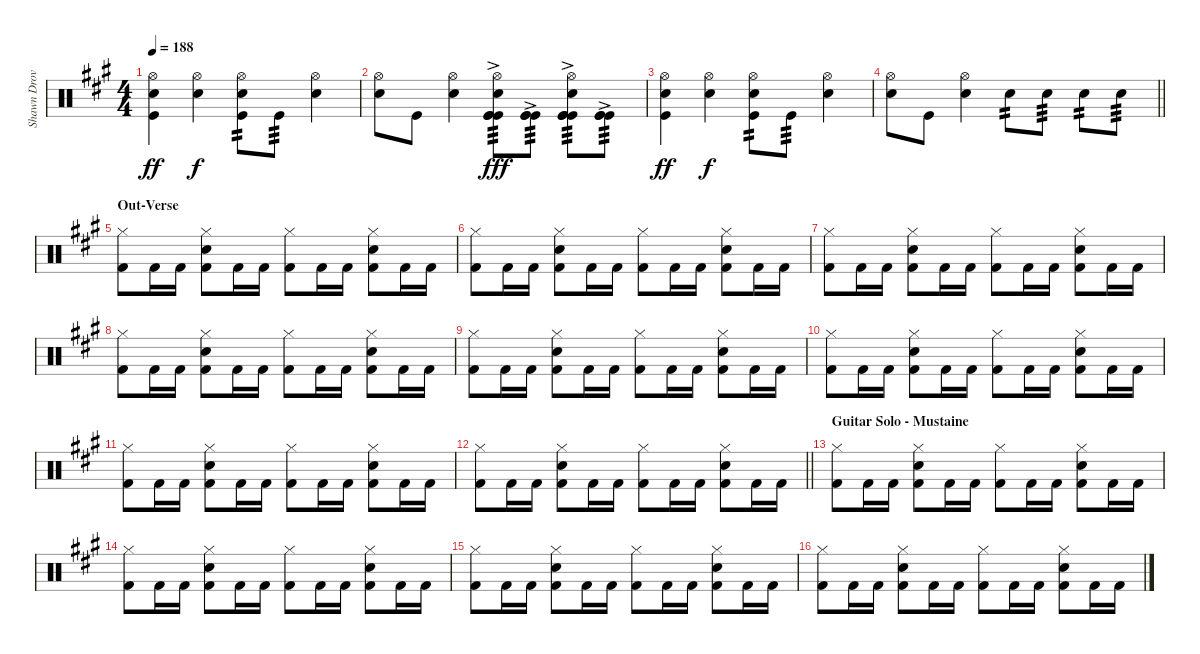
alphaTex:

\track ("Shawn Drover" "Shawn Drov") {instrument percussion}
\staff {score}
\articulation defaults
\ts (4 4)
\tempo 188
\clef neutral
\ks a
("Hi-Hat (open)" "Snare (hit) 2" "Kick (hit)").4{dy ff} ("Hi-Hat (open)" "Snare (hit) 2").4{dy f} ("Hi-Hat (open)" "Snare (hit) 2" "Kick (hit)").8{tp 2} "Kick (hit)".8{tp 3} ("Hi-Hat (open)" "Snare (hit) 2").4 |
("Hi-Hat (open)" "Snare (hit) 2").8 "Kick (hit)".8 ("Hi-Hat (open)" "Snare (hit) 2").4 ("Hi-Hat (open)" "Snare (hit) 2" "Kick (hit)"{ac} "Kick (hit)" "Kick (hit)").8{tp 3 dy fff} ("Kick (hit)"{ac} "Kick (hit)" "Kick (hit)").8{tp 3} ("Hi-Hat (open)" "Snare (hit) 2" "Kick (hit)"{ac} "Kick (hit)" "Kick (hit)").8{tp 3} ("Kick (hit)"{ac} "Kick (hit)" "Kick (hit)").8{tp 3} |
("Hi-Hat (open)" "Snare (hit) 2" "Kick (hit)").4{dy ff} ("Hi-Hat (open)" "Snare (hit) 2").4{dy f} ("Hi-Hat (open)" "Snare (hit) 2" "Kick (hit)").8{tp 2} "Kick (hit)".8{tp 3} ("Hi-Hat (open)" "Snare (hit) 2").4 |
\barLineRight lightlight
("Hi-Hat (open)" "Snare (hit) 2").8 "Kick (hit)".8 ("Hi-Hat (open)" "Snare (hit) 2").4 "Snare (hit) 2".8{tp 2} "Snare (hit) 2".8{tp 3} "Snare (hit) 2".8{tp 2} "Snare (hit) 2".8{tp 3} |
\section ("" "Out-Verse")
("Hi-Hat (closed)" "Kick (hit) 2").8 "Kick (hit) 2".16 "Kick (hit) 2".16 ("Hi-Hat (closed)" "Electric Snare (hit)" "Kick (hit) 2").8 "Kick (hit) 2".16 "Kick (hit) 2".16 ("Hi-Hat (closed)" "Kick (hit) 2").8 "Kick (hit) 2".16 "Kick (hit) 2".16 ("Hi-Hat (closed)" "Electric Snare (hit)" "Kick (hit) 2").8 "Kick (hit) 2".16 "Kick (hit) 2".16 |
("Hi-Hat (closed)" "Kick (hit) 2").8 "Kick (hit) 2".16 "Kick (hit) 2".16 ("Hi-Hat (closed)" "Electric Snare (hit)" "Kick (hit) 2").8 "Kick (hit) 2".16 "Kick (hit) 2".16 ("Hi-Hat (closed)" "Kick (hit) 2").8 "Kick (hit) 2".16 "Kick (hit) 2".16 ("Hi-Hat (closed)" "Electric Snare (hit)" "Kick (hit) 2").8 "Kick (hit) 2".16 "Kick (hit) 2".16 |
("Hi-Hat (closed)" "Kick (hit) 2").8 "Kick (hit) 2".16 "Kick (hit) 2".16 ("Hi-Hat (closed)" "Electric Snare (hit)" "Kick (hit) 2").8 "Kick (hit) 2".16 "Kick (hit) 2".16 ("Hi-Hat (closed)" "Kick (hit) 2").8 "Kick (hit) 2".16 "Kick (hit) 2".16 ("Hi-Hat (closed)" "Electric Snare (hit)" "Kick (hit) 2").8 "Kick (hit) 2".16 "Kick (hit) 2".16 |
("Hi-Hat (closed)" "Kick (hit) 2").8 "Kick (hit) 2".16 "Kick (hit) 2".16 ("Hi-Hat (closed)" "Electric Snare (hit)" "Kick (hit) 2").8 "Kick (hit) 2".16 "Kick (hit) 2".16 ("Hi-Hat (closed)" "Kick (hit) 2").8 "Kick (hit) 2".16 "Kick (hit) 2".16 ("Hi-Hat (closed)" "Electric Snare (hit)" "Kick (hit) 2").8 "Kick (hit) 2".16 "Kick (hit) 2".16 |
("Hi-Hat (closed)" "Kick (hit) 2").8 "Kick (hit) 2".16 "Kick (hit) 2".16 ("Hi-Hat (closed)" "Electric Snare (hit)" "Kick (hit) 2").8 "Kick (hit) 2".16 "Kick (hit) 2".16 ("Hi-Hat (closed)" "Kick (hit) 2").8 "Kick (hit) 2".16 "Kick (hit) 2".16 ("Hi-Hat (closed)" "Electric Snare (hit)" "Kick (hit) 2").8 "Kick (hit) 2".16 "Kick (hit) 2".16 |
("Hi-Hat (closed)" "Kick (hit) 2").8 "Kick (hit) 2".16 "Kick (hit) 2".16 ("Hi-Hat (closed)" "Electric Snare (hit)" "Kick (hit) 2").8 "Kick (hit) 2".16 "Kick (hit) 2".16 ("Hi-Hat (closed)" "Kick (hit) 2").8 "Kick (hit) 2".16 "Kick (hit) 2".16 ("Hi-Hat (closed)" "Electric Snare (hit)" "Kick (hit) 2").8 "Kick (hit) 2".16 "Kick (hit) 2".16 |
("Hi-Hat (closed)" "Kick (hit) 2").8 "Kick (hit) 2".16 "Kick (hit) 2".16 ("Hi-Hat (closed)" "Electric Snare (hit)" "Kick (hit) 2").8 "Kick (hit) 2".16 "Kick (hit) 2".16 ("Hi-Hat (closed)" "Kick (hit) 2").8 "Kick (hit) 2".16 "Kick (hit) 2".16 ("Hi-Hat (closed)" "Electric Snare (hit)" "Kick (hit) 2").8 "Kick (hit) 2".16 "Kick (hit) 2".16 |
\barLineRight lightlight
("Hi-Hat (closed)" "Kick (hit) 2").8 "Kick (hit) 2".16 "Kick (hit) 2".16 ("Hi-Hat (closed)" "Electric Snare (hit)" "Kick (hit) 2").8 "Kick (hit) 2".16 "Kick (hit) 2".16 ("Hi-Hat (closed)" "Kick (hit) 2").8 "Kick (hit) 2".16 "Kick (hit) 2".16 ("Hi-Hat (closed)" "Electric Snare (hit)" "Kick (hit) 2").8 "Kick (hit) 2".16 "Kick (hit) 2".16 |
\section ("" "Guitar Solo - Mustaine")
("Hi-Hat (closed)" "Kick (hit) 2").8 "Kick (hit) 2".16 "Kick (hit) 2".16 ("Hi-Hat (closed)" "Electric Snare (hit)" "Kick (hit) 2").8 "Kick (hit) 2".16 "Kick (hit) 2".16 ("Hi-Hat (closed)" "Kick (hit) 2").8 "Kick (hit) 2".16 "Kick (hit) 2".16 ("Hi-Hat (closed)" "Electric Snare (hit)" "Kick (hit) 2").8 "Kick (hit) 2".16 "Kick (hit) 2".16 |
("Hi-Hat (closed)" "Kick (hit) 2").8 "Kick (hit) 2".16 "Kick (hit) 2".16 ("Hi-Hat (closed)" "Electric Snare (hit)" "Kick (hit) 2").8 "Kick (hit) 2".16 "Kick (hit) 2".16 ("Hi-Hat (closed)" "Kick (hit) 2").8 "Kick (hit) 2".16 "Kick (hit) 2".16 ("Hi-Hat (closed)" "Electric Snare (hit)" "Kick (hit) 2").8 "Kick (hit) 2".16 "Kick (hit) 2".16 |
("Hi-Hat (closed)" "Kick (hit) 2").8 "Kick (hit) 2".16 "Kick (hit) 2".16 ("Hi-Hat (closed)" "Electric Snare (hit)" "Kick (hit) 2").8 "Kick (hit) 2".16 "Kick (hit) 2".16 ("Hi-Hat (closed)" "Kick (hit) 2").8 "Kick (hit) 2".16 "Kick (hit) 2".16 ("Hi-Hat (closed)" "Electric Snare (hit)" "Kick (hit) 2").8 "Kick (hit) 2".16 "Kick (hit) 2".16 |
("Hi-Hat (closed)" "Kick (hit) 2").8 "Kick (hit) 2".16 "Kick (hit) 2".16 ("Hi-Hat (closed)" "Electric Snare (hit)" "Kick (hit) 2").8 "Kick (hit) 2".16 "Kick (hit) 2".16 ("Hi-Hat (closed)" "Kick (hit) 2").8 "Kick (hit) 2".16 "Kick (hit) 2".16 ("Hi-Hat (closed)" "Electric Snare (hit)" "Kick (hit) 2").8 "Kick (hit) 2".16 "Kick (hit) 2".16
